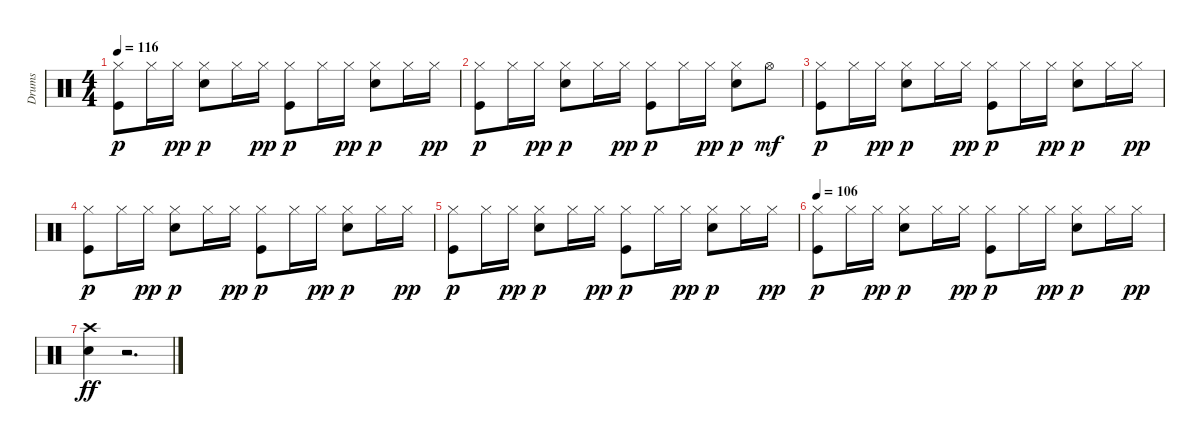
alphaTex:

\track ("Drums" "Drums") {instrument percussion}
\staff {score}
\articulation defaults
\ts (4 4)
\tempo 116
\clef neutral
\ks c
("Hi-Hat (closed)" "Kick (hit)").8{dy p} "Hi-Hat (closed)".16 "Hi-Hat (closed)".16{dy pp} ("Hi-Hat (closed)" "Snare (hit) 2").8{dy p} "Hi-Hat (closed)".16 "Hi-Hat (closed)".16{dy pp} ("Hi-Hat (closed)" "Kick (hit)").8{dy p} "Hi-Hat (closed)".16 "Hi-Hat (closed)".16{dy pp} ("Hi-Hat (closed)" "Snare (hit) 2").8{dy p} "Hi-Hat (closed)".16 "Hi-Hat (closed)".16{dy pp} |
("Hi-Hat (closed)" "Kick (hit)").8{dy p} "Hi-Hat (closed)".16 "Hi-Hat (closed)".16{dy pp} ("Hi-Hat (closed)" "Snare (hit) 2").8{dy p} "Hi-Hat (closed)".16 "Hi-Hat (closed)".16{dy pp} ("Hi-Hat (closed)" "Kick (hit)").8{dy p} "Hi-Hat (closed)".16 "Hi-Hat (closed)".16{dy pp} ("Hi-Hat (closed)" "Snare (hit) 2").8{dy p} "Hi-Hat (open)".8{dy mf} |
("Hi-Hat (closed)" "Kick (hit)").8{dy p} "Hi-Hat (closed)".16 "Hi-Hat (closed)".16{dy pp} ("Hi-Hat (closed)" "Snare (hit) 2").8{dy p} "Hi-Hat (closed)".16 "Hi-Hat (closed)".16{dy pp} ("Hi-Hat (closed)" "Kick (hit)").8{dy p} "Hi-Hat (closed)".16 "Hi-Hat (closed)".16{dy pp} ("Hi-Hat (closed)" "Snare (hit) 2").8{dy p} "Hi-Hat (closed)".16 "Hi-Hat (closed)".16{dy pp} |
("Hi-Hat (closed)" "Kick (hit)").8{dy p} "Hi-Hat (closed)".16 "Hi-Hat (closed)".16{dy pp} ("Hi-Hat (closed)" "Snare (hit) 2").8{dy p} "Hi-Hat (closed)".16 "Hi-Hat (closed)".16{dy pp} ("Hi-Hat (closed)" "Kick (hit)").8{dy p} "Hi-Hat (closed)".16 "Hi-Hat (closed)".16{dy pp} ("Hi-Hat (closed)" "Snare (hit) 2").8{dy p} "Hi-Hat (closed)".16 "Hi-Hat (closed)".16{dy pp} |
("Hi-Hat (closed)" "Kick (hit)").8{dy p} "Hi-Hat (closed)".16 "Hi-Hat (closed)".16{dy pp} ("Hi-Hat (closed)" "Snare (hit) 2").8{dy p} "Hi-Hat (closed)".16 "Hi-Hat (closed)".16{dy pp} ("Hi-Hat (closed)" "Kick (hit)").8{dy p} "Hi-Hat (closed)".16 "Hi-Hat (closed)".16{dy pp} ("Hi-Hat (closed)" "Snare (hit) 2").8{dy p} "Hi-Hat (closed)".16 "Hi-Hat (closed)".16{dy pp} |
\tempo 100
\tempo 106
("Hi-Hat (closed)" "Kick (hit)").8{dy p} "Hi-Hat (closed)".16 "Hi-Hat (closed)".16{dy pp} ("Hi-Hat (closed)" "Snare (hit) 2").8{dy p} "Hi-Hat (closed)".16 "Hi-Hat (closed)".16{dy pp} ("Hi-Hat (closed)" "Kick (hit)").8{dy p} "Hi-Hat (closed)".16 "Hi-Hat (closed)".16{dy pp} ("Hi-Hat (closed)" "Snare (hit) 2").8{dy p} "Hi-Hat (closed)".16 "Hi-Hat (closed)".16{dy pp} |
("Crash high (hit)" "Snare (hit) 2").4{dy ff} r.2{d}
